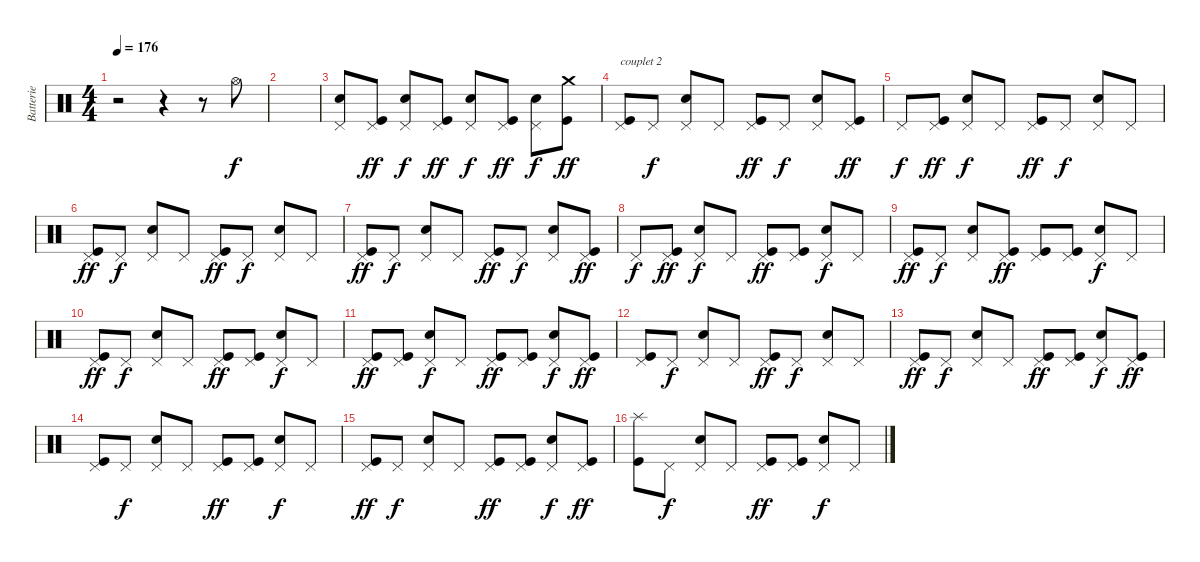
\track ("Batterie" "Batterie") {instrument percussion}
\staff {score}
\articulation defaults
\ts (4 4)
\tempo 176
\clef neutral
\ks c
r.2{dy ff} r.4 r.8 "Hi-Hat (open)".8{dy f} |
|
("Pedal Hi-Hat (hit)" "Snare (hit) 2").8 ("Pedal Hi-Hat (hit)" "Kick (hit)").8{dy ff} ("Pedal Hi-Hat (hit)" "Snare (hit) 2").8{dy f} ("Pedal Hi-Hat (hit)" "Kick (hit)").8{dy ff} ("Pedal Hi-Hat (hit)" "Snare (hit) 2").8{dy f} ("Pedal Hi-Hat (hit)" "Kick (hit)").8{dy ff} ("Pedal Hi-Hat (hit)" "Snare (hit) 2").8{dy f} ("Crash medium (hit)" "Kick (hit)").8{dy ff} |
("Pedal Hi-Hat (hit)" "Kick (hit)").8{txt "couplet 2"} "Pedal Hi-Hat (hit)".8{dy f} ("Pedal Hi-Hat (hit)" "Snare (hit) 2").8 "Pedal Hi-Hat (hit)".8 ("Pedal Hi-Hat (hit)" "Kick (hit)").8{dy ff} "Pedal Hi-Hat (hit)".8{dy f} ("Pedal Hi-Hat (hit)" "Snare (hit) 2").8 ("Pedal Hi-Hat (hit)" "Kick (hit)").8{dy ff} |
"Pedal Hi-Hat (hit)".8{dy f} ("Pedal Hi-Hat (hit)" "Kick (hit)").8{dy ff} ("Pedal Hi-Hat (hit)" "Snare (hit) 2").8{dy f} "Pedal Hi-Hat (hit)".8 ("Pedal Hi-Hat (hit)" "Kick (hit)").8{dy ff} "Pedal Hi-Hat (hit)".8{dy f} ("Pedal Hi-Hat (hit)" "Snare (hit) 2").8 "Pedal Hi-Hat (hit)".8 |
("Pedal Hi-Hat (hit)" "Kick (hit)").8{dy ff} "Pedal Hi-Hat (hit)".8{dy f} ("Pedal Hi-Hat (hit)" "Snare (hit) 2").8 "Pedal Hi-Hat (hit)".8 ("Pedal Hi-Hat (hit)" "Kick (hit)").8{dy ff} "Pedal Hi-Hat (hit)".8{dy f} ("Pedal Hi-Hat (hit)" "Snare (hit) 2").8 "Pedal Hi-Hat (hit)".8 |
("Pedal Hi-Hat (hit)" "Kick (hit)").8{dy ff} "Pedal Hi-Hat (hit)".8{dy f} ("Pedal Hi-Hat (hit)" "Snare (hit) 2").8 "Pedal Hi-Hat (hit)".8 ("Pedal Hi-Hat (hit)" "Kick (hit)").8{dy ff} "Pedal Hi-Hat (hit)".8{dy f} ("Pedal Hi-Hat (hit)" "Snare (hit) 2").8 ("Pedal Hi-Hat (hit)" "Kick (hit)").8{dy ff} |
"Pedal Hi-Hat (hit)".8{dy f} ("Pedal Hi-Hat (hit)" "Kick (hit)").8{dy ff} ("Pedal Hi-Hat (hit)" "Snare (hit) 2").8{dy f} "Pedal Hi-Hat (hit)".8 ("Pedal Hi-Hat (hit)" "Kick (hit)").8{dy ff} ("Pedal Hi-Hat (hit)" "Kick (hit)").8 ("Pedal Hi-Hat (hit)" "Snare (hit) 2").8{dy f} "Pedal Hi-Hat (hit)".8 |
("Pedal Hi-Hat (hit)" "Kick (hit)").8{dy ff} "Pedal Hi-Hat (hit)".8{dy f} ("Pedal Hi-Hat (hit)" "Snare (hit) 2").8 ("Pedal Hi-Hat (hit)" "Kick (hit)").8{dy ff} ("Pedal Hi-Hat (hit)" "Kick (hit)").8 ("Pedal Hi-Hat (hit)" "Kick (hit)").8 ("Pedal Hi-Hat (hit)" "Snare (hit) 2").8{dy f} "Pedal Hi-Hat (hit)".8 |
("Pedal Hi-Hat (hit)" "Kick (hit)").8{dy ff} "Pedal Hi-Hat (hit)".8{dy f} ("Pedal Hi-Hat (hit)" "Snare (hit) 2").8 "Pedal Hi-Hat (hit)".8 ("Pedal Hi-Hat (hit)" "Kick (hit)").8{dy ff} ("Pedal Hi-Hat (hit)" "Kick (hit)").8 ("Pedal Hi-Hat (hit)" "Snare (hit) 2").8{dy f} "Pedal Hi-Hat (hit)".8 |
("Pedal Hi-Hat (hit)" "Kick (hit)").8{dy ff} ("Pedal Hi-Hat (hit)" "Kick (hit)").8 ("Pedal Hi-Hat (hit)" "Snare (hit) 2").8{dy f} "Pedal Hi-Hat (hit)".8 ("Pedal Hi-Hat (hit)" "Kick (hit)").8{dy ff} ("Pedal Hi-Hat (hit)" "Kick (hit)").8 ("Pedal Hi-Hat (hit)" "Snare (hit) 2").8{dy f} ("Pedal Hi-Hat (hit)" "Kick (hit)").8{dy ff} |
("Pedal Hi-Hat (hit)" "Kick (hit)").8 "Pedal Hi-Hat (hit)".8{dy f} ("Pedal Hi-Hat (hit)" "Snare (hit) 2").8 "Pedal Hi-Hat (hit)".8 ("Pedal Hi-Hat (hit)" "Kick (hit)").8{dy ff} "Pedal Hi-Hat (hit)".8{dy f} ("Pedal Hi-Hat (hit)" "Snare (hit) 2").8 "Pedal Hi-Hat (hit)".8 |
("Pedal Hi-Hat (hit)" "Kick (hit)").8{dy ff} "Pedal Hi-Hat (hit)".8{dy f} ("Pedal Hi-Hat (hit)" "Snare (hit) 2").8 "Pedal Hi-Hat (hit)".8 ("Pedal Hi-Hat (hit)" "Kick (hit)").8{dy ff} ("Pedal Hi-Hat (hit)" "Kick (hit)").8 ("Pedal Hi-Hat (hit)" "Snare (hit) 2").8{dy f} ("Pedal Hi-Hat (hit)" "Kick (hit)").8{dy ff} |
("Pedal Hi-Hat (hit)" "Kick (hit)").8 "Pedal Hi-Hat (hit)".8{dy f} ("Pedal Hi-Hat (hit)" "Snare (hit) 2").8 "Pedal Hi-Hat (hit)".8 ("Pedal Hi-Hat (hit)" "Kick (hit)").8{dy ff} ("Pedal Hi-Hat (hit)" "Kick (hit)").8 ("Pedal Hi-Hat (hit)" "Snare (hit) 2").8{dy f} "Pedal Hi-Hat (hit)".8 |
("Pedal Hi-Hat (hit)" "Kick (hit)").8{dy ff} "Pedal Hi-Hat (hit)".8{dy f} ("Pedal Hi-Hat (hit)" "Snare (hit) 2").8 "Pedal Hi-Hat (hit)".8 ("Pedal Hi-Hat (hit)" "Kick (hit)").8{dy ff} ("Pedal Hi-Hat (hit)" "Kick (hit)").8 ("Pedal Hi-Hat (hit)" "Snare (hit) 2").8{dy f} ("Pedal Hi-Hat (hit)" "Kick (hit)").8{dy ff} |
("Splash (hit)" "Kick (hit)").8 "Pedal Hi-Hat (hit)".8{dy f} ("Pedal Hi-Hat (hit)" "Snare (hit) 2").8 "Pedal Hi-Hat (hit)".8 ("Pedal Hi-Hat (hit)" "Kick (hit)").8{dy ff} ("Pedal Hi-Hat (hit)" "Kick (hit)").8 ("Pedal Hi-Hat (hit)" "Snare (hit) 2").8{dy f} "Pedal Hi-Hat (hit)".8
